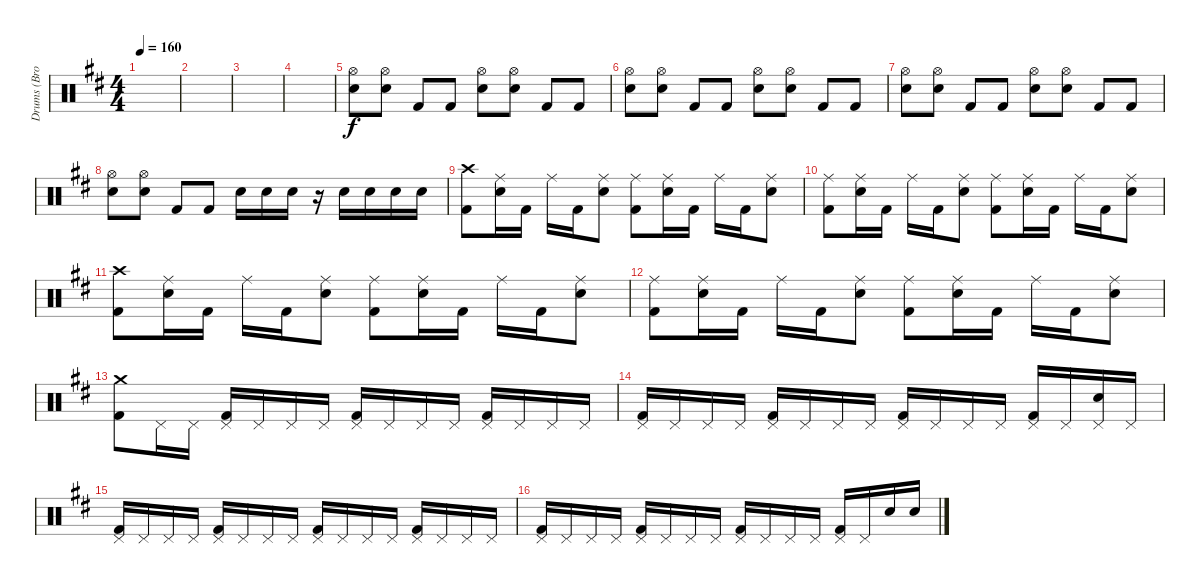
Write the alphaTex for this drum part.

\track ("Drums (Brooks Wackerman)" "Drums (Bro") {instrument percussion}
\staff {score}
\articulation defaults
\ts (4 4)
\tempo 160
\clef neutral
\ks d
|
|
|
|
("Hi-Hat (open)" "Snare (hit) 2").8 ("Hi-Hat (open)" "Snare (hit) 2").8 "Kick (hit) 2".8 "Kick (hit) 2".8 ("Hi-Hat (open)" "Snare (hit) 2").8 ("Hi-Hat (open)" "Snare (hit) 2").8 "Kick (hit) 2".8 "Kick (hit) 2".8 |
("Hi-Hat (open)" "Snare (hit) 2").8 ("Hi-Hat (open)" "Snare (hit) 2").8 "Kick (hit) 2".8 "Kick (hit) 2".8 ("Hi-Hat (open)" "Snare (hit) 2").8 ("Hi-Hat (open)" "Snare (hit) 2").8 "Kick (hit) 2".8 "Kick (hit) 2".8 |
("Hi-Hat (open)" "Snare (hit) 2").8 ("Hi-Hat (open)" "Snare (hit) 2").8 "Kick (hit) 2".8 "Kick (hit) 2".8 ("Hi-Hat (open)" "Snare (hit) 2").8 ("Hi-Hat (open)" "Snare (hit) 2").8 "Kick (hit) 2".8 "Kick (hit) 2".8 |
("Hi-Hat (open)" "Snare (hit) 2").8 ("Hi-Hat (open)" "Snare (hit) 2").8 "Kick (hit) 2".8 "Kick (hit) 2".8 "Snare (hit) 2".16 "Snare (hit) 2".16 "Snare (hit) 2".16 r.16 "Snare (hit) 2".16 "Snare (hit) 2".16 "Snare (hit) 2".16 "Snare (hit) 2".16 |
("Crash high (hit)" "Kick (hit) 2").8 ("Ride (middle)" "Snare (hit) 2").16 "Kick (hit) 2".16 "Ride (middle)".16 "Kick (hit) 2".16 ("Ride (middle)" "Snare (hit) 2").8 ("Ride (middle)" "Kick (hit) 2").8 ("Ride (middle)" "Snare (hit) 2").16 "Kick (hit) 2".16 "Ride (middle)".16 "Kick (hit) 2".16 ("Ride (middle)" "Snare (hit) 2").8 |
("Ride (middle)" "Kick (hit) 2").8 ("Ride (middle)" "Snare (hit) 2").16 "Kick (hit) 2".16 "Ride (middle)".16 "Kick (hit) 2".16 ("Ride (middle)" "Snare (hit) 2").8 ("Ride (middle)" "Kick (hit) 2").8 ("Ride (middle)" "Snare (hit) 2").16 "Kick (hit) 2".16 "Ride (middle)".16 "Kick (hit) 2".16 ("Ride (middle)" "Snare (hit) 2").8 |
("Crash high (hit)" "Kick (hit) 2").8 ("Ride (middle)" "Snare (hit) 2").16 "Kick (hit) 2".16 "Ride (middle)".16 "Kick (hit) 2".16 ("Ride (middle)" "Snare (hit) 2").8 ("Ride (middle)" "Kick (hit) 2").8 ("Ride (middle)" "Snare (hit) 2").16 "Kick (hit) 2".16 "Ride (middle)".16 "Kick (hit) 2".16 ("Ride (middle)" "Snare (hit) 2").8 |
("Ride (middle)" "Kick (hit) 2").8 ("Ride (middle)" "Snare (hit) 2").16 "Kick (hit) 2".16 "Ride (middle)".16 "Kick (hit) 2".16 ("Ride (middle)" "Snare (hit) 2").8 ("Ride (middle)" "Kick (hit) 2").8 ("Ride (middle)" "Snare (hit) 2").16 "Kick (hit) 2".16 "Ride (middle)".16 "Kick (hit) 2".16 ("Ride (middle)" "Snare (hit) 2").8 |
("Crash medium (hit)" "Kick (hit) 2").8 "Pedal Hi-Hat (hit)".16 "Pedal Hi-Hat (hit)".16 ("Pedal Hi-Hat (hit)" "Kick (hit) 2").16 "Pedal Hi-Hat (hit)".16 "Pedal Hi-Hat (hit)".16 "Pedal Hi-Hat (hit)".16 ("Pedal Hi-Hat (hit)" "Kick (hit) 2").16 "Pedal Hi-Hat (hit)".16 "Pedal Hi-Hat (hit)".16 "Pedal Hi-Hat (hit)".16 ("Pedal Hi-Hat (hit)" "Kick (hit) 2").16 "Pedal Hi-Hat (hit)".16 "Pedal Hi-Hat (hit)".16 "Pedal Hi-Hat (hit)".16 |
("Pedal Hi-Hat (hit)" "Kick (hit) 2").16 "Pedal Hi-Hat (hit)".16 "Pedal Hi-Hat (hit)".16 "Pedal Hi-Hat (hit)".16 ("Pedal Hi-Hat (hit)" "Kick (hit) 2").16 "Pedal Hi-Hat (hit)".16 "Pedal Hi-Hat (hit)".16 "Pedal Hi-Hat (hit)".16 ("Pedal Hi-Hat (hit)" "Kick (hit) 2").16 "Pedal Hi-Hat (hit)".16 "Pedal Hi-Hat (hit)".16 "Pedal Hi-Hat (hit)".16 ("Pedal Hi-Hat (hit)" "Kick (hit) 2").16 "Pedal Hi-Hat (hit)".16 ("Pedal Hi-Hat (hit)" "Snare (hit) 2").16 "Pedal Hi-Hat (hit)".16 |
("Pedal Hi-Hat (hit)" "Kick (hit) 2").16 "Pedal Hi-Hat (hit)".16 "Pedal Hi-Hat (hit)".16 "Pedal Hi-Hat (hit)".16 ("Pedal Hi-Hat (hit)" "Kick (hit) 2").16 "Pedal Hi-Hat (hit)".16 "Pedal Hi-Hat (hit)".16 "Pedal Hi-Hat (hit)".16 ("Pedal Hi-Hat (hit)" "Kick (hit) 2").16 "Pedal Hi-Hat (hit)".16 "Pedal Hi-Hat (hit)".16 "Pedal Hi-Hat (hit)".16 ("Pedal Hi-Hat (hit)" "Kick (hit) 2").16 "Pedal Hi-Hat (hit)".16 "Pedal Hi-Hat (hit)".16 "Pedal Hi-Hat (hit)".16 |
("Pedal Hi-Hat (hit)" "Kick (hit) 2").16 "Pedal Hi-Hat (hit)".16 "Pedal Hi-Hat (hit)".16 "Pedal Hi-Hat (hit)".16 ("Pedal Hi-Hat (hit)" "Kick (hit) 2").16 "Pedal Hi-Hat (hit)".16 "Pedal Hi-Hat (hit)".16 "Pedal Hi-Hat (hit)".16 ("Pedal Hi-Hat (hit)" "Kick (hit) 2").16 "Pedal Hi-Hat (hit)".16 "Pedal Hi-Hat (hit)".16 "Pedal Hi-Hat (hit)".16 ("Pedal Hi-Hat (hit)" "Kick (hit) 2").16 "Pedal Hi-Hat (hit)".16 "Snare (hit) 2".16 "Snare (hit) 2".16
